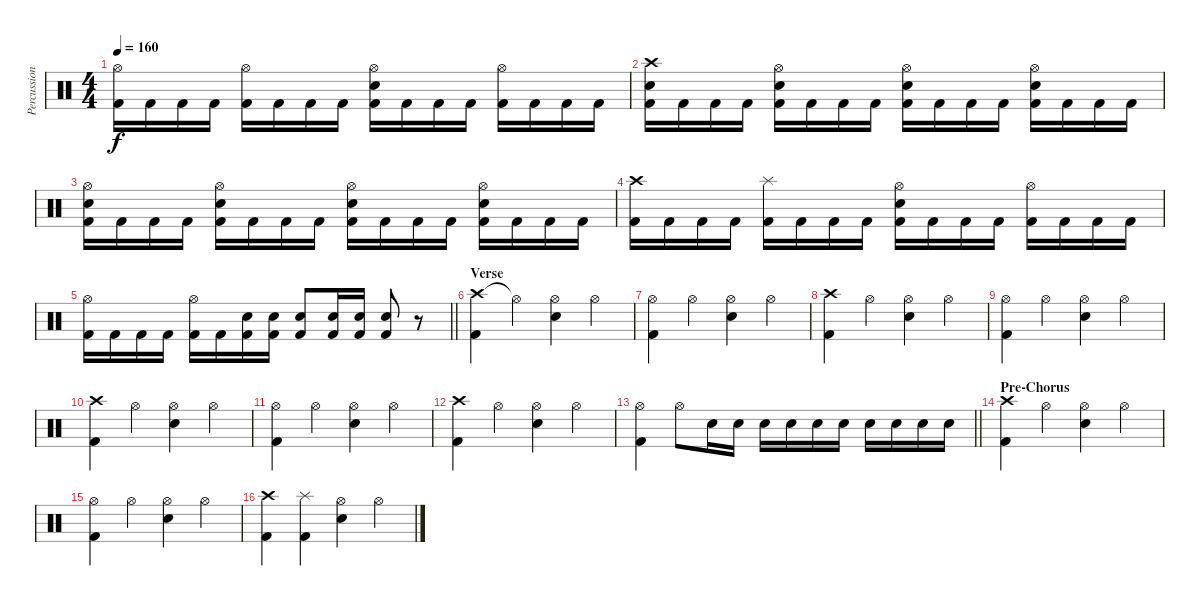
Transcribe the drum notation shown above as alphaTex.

\track ("Percussion" "Percussion") {instrument percussion}
\staff {score}
\articulation defaults
\ts (4 4)
\tempo 160
\clef neutral
\ks c
("Hi-Hat (open)" "Kick (hit) 2").16{dy f} "Kick (hit) 2".16 "Kick (hit) 2".16 "Kick (hit) 2".16 ("Hi-Hat (open)" "Kick (hit) 2").16 "Kick (hit) 2".16 "Kick (hit) 2".16 "Kick (hit) 2".16 ("Hi-Hat (open)" "Snare (hit) 2" "Kick (hit) 2").16 "Kick (hit) 2".16 "Kick (hit) 2".16 "Kick (hit) 2".16 ("Hi-Hat (open)" "Kick (hit) 2").16 "Kick (hit) 2".16 "Kick (hit) 2".16 "Kick (hit) 2".16 |
("Crash high (hit)" "Snare (hit) 2" "Kick (hit) 2").16 "Kick (hit) 2".16 "Kick (hit) 2".16 "Kick (hit) 2".16 ("Hi-Hat (open)" "Snare (hit) 2" "Kick (hit) 2").16 "Kick (hit) 2".16 "Kick (hit) 2".16 "Kick (hit) 2".16 ("Hi-Hat (open)" "Snare (hit) 2" "Kick (hit) 2").16 "Kick (hit) 2".16 "Kick (hit) 2".16 "Kick (hit) 2".16 ("Hi-Hat (open)" "Snare (hit) 2" "Kick (hit) 2").16 "Kick (hit) 2".16 "Kick (hit) 2".16 "Kick (hit) 2".16 |
("Hi-Hat (open)" "Snare (hit) 2" "Kick (hit) 2").16 "Kick (hit) 2".16 "Kick (hit) 2".16 "Kick (hit) 2".16 ("Hi-Hat (open)" "Snare (hit) 2" "Kick (hit) 2").16 "Kick (hit) 2".16 "Kick (hit) 2".16 "Kick (hit) 2".16 ("Hi-Hat (open)" "Snare (hit) 2" "Kick (hit) 2").16 "Kick (hit) 2".16 "Kick (hit) 2".16 "Kick (hit) 2".16 ("Hi-Hat (open)" "Snare (hit) 2" "Kick (hit) 2").16 "Kick (hit) 2".16 "Kick (hit) 2".16 "Kick (hit) 2".16 |
("Crash high (hit)" "Kick (hit) 2").16 "Kick (hit) 2".16 "Kick (hit) 2".16 "Kick (hit) 2".16 ("Splash (hit)" "Kick (hit) 2").16 "Kick (hit) 2".16 "Kick (hit) 2".16 "Kick (hit) 2".16 ("Hi-Hat (open)" "Snare (hit) 2" "Kick (hit) 2").16 "Kick (hit) 2".16 "Kick (hit) 2".16 "Kick (hit) 2".16 ("Hi-Hat (open)" "Kick (hit) 2").16 "Kick (hit) 2".16 "Kick (hit) 2".16 "Kick (hit) 2".16 |
\barLineRight lightlight
("Hi-Hat (open)" "Kick (hit) 2").16 "Kick (hit) 2".16 "Kick (hit) 2".16 "Kick (hit) 2".16 ("Hi-Hat (open)" "Kick (hit) 2").16 "Kick (hit) 2".16 ("Snare (hit) 2" "Kick (hit) 2").16 ("Snare (hit) 2" "Kick (hit) 2").16 ("Snare (hit) 2" "Kick (hit) 2").8 ("Snare (hit) 2" "Kick (hit) 2").16 ("Snare (hit) 2" "Kick (hit) 2").16 ("Snare (hit) 2" "Kick (hit) 2").8 r.8 |
\section ("" "Verse")
("Crash high (hit)" "Kick (hit) 2").4 "Hi-Hat (open)"{t}.4 ("Hi-Hat (open)" "Snare (hit) 2").4 "Hi-Hat (open)".4 |
("Hi-Hat (open)" "Kick (hit) 2").4 "Hi-Hat (open)".4 ("Hi-Hat (open)" "Snare (hit) 2").4 "Hi-Hat (open)".4 |
("Crash high (hit)" "Kick (hit) 2").4 "Hi-Hat (open)".4 ("Hi-Hat (open)" "Snare (hit) 2").4 "Hi-Hat (open)".4 |
("Hi-Hat (open)" "Kick (hit) 2").4 "Hi-Hat (open)".4 ("Hi-Hat (open)" "Snare (hit) 2").4 "Hi-Hat (open)".4 |
("Crash high (hit)" "Kick (hit) 2").4 "Hi-Hat (open)".4 ("Hi-Hat (open)" "Snare (hit) 2").4 "Hi-Hat (open)".4 |
("Hi-Hat (open)" "Kick (hit) 2").4 "Hi-Hat (open)".4 ("Hi-Hat (open)" "Snare (hit) 2").4 "Hi-Hat (open)".4 |
("Crash high (hit)" "Kick (hit) 2").4 "Hi-Hat (open)".4 ("Hi-Hat (open)" "Snare (hit) 2").4 "Hi-Hat (open)".4 |
\barLineRight lightlight
("Hi-Hat (open)" "Kick (hit) 2").4 "Hi-Hat (open)".8 "Snare (hit) 2".16 "Snare (hit) 2".16 "Snare (hit) 2".16 "Snare (hit) 2".16 "Snare (hit) 2".16 "Snare (hit) 2".16 "Snare (hit) 2".16 "Snare (hit) 2".16 "Snare (hit) 2".16 "Snare (hit) 2".16 |
\section ("" "Pre-Chorus")
("Crash high (hit)" "Kick (hit) 2").4 "Hi-Hat (open)".4 ("Hi-Hat (open)" "Snare (hit) 2").4 "Hi-Hat (open)".4 |
("Hi-Hat (open)" "Kick (hit) 2").4 "Hi-Hat (open)".4 ("Hi-Hat (open)" "Snare (hit) 2").4 "Hi-Hat (open)".4 |
("Crash high (hit)" "Kick (hit) 2").4 ("Splash (hit)" "Kick (hit) 2").4 ("Hi-Hat (open)" "Snare (hit) 2").4 "Hi-Hat (open)".4
